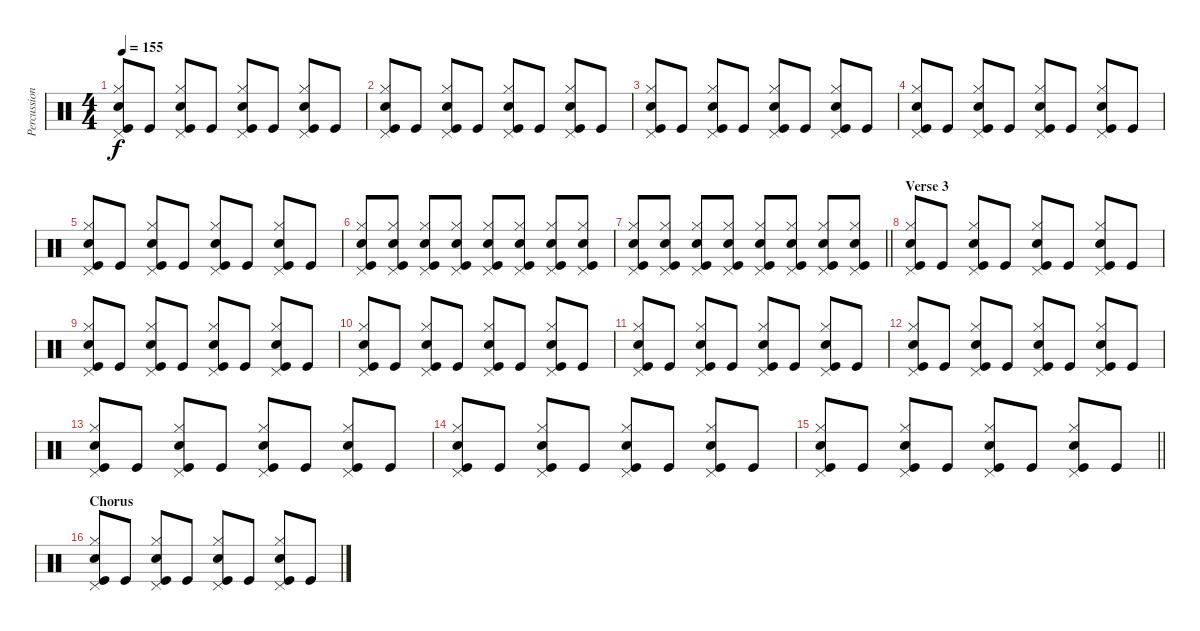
\track ("Percussions" "Percussion") {instrument percussion}
\staff {score}
\articulation defaults
\ts (4 4)
\tempo 155
\clef neutral
\ks c
("Snare (hit) 2" "Hi-Hat (closed)" "Pedal Hi-Hat (hit)" "Kick (hit)").8{dy f} "Kick (hit)".8 ("Snare (hit) 2" "Hi-Hat (closed)" "Pedal Hi-Hat (hit)" "Kick (hit)").8 "Kick (hit)".8 ("Snare (hit) 2" "Hi-Hat (closed)" "Pedal Hi-Hat (hit)" "Kick (hit)").8 "Kick (hit)".8 ("Snare (hit) 2" "Hi-Hat (closed)" "Pedal Hi-Hat (hit)" "Kick (hit)").8 "Kick (hit)".8 |
("Snare (hit) 2" "Hi-Hat (closed)" "Pedal Hi-Hat (hit)" "Kick (hit)").8 "Kick (hit)".8 ("Snare (hit) 2" "Hi-Hat (closed)" "Pedal Hi-Hat (hit)" "Kick (hit)").8 "Kick (hit)".8 ("Snare (hit) 2" "Hi-Hat (closed)" "Pedal Hi-Hat (hit)" "Kick (hit)").8 "Kick (hit)".8 ("Snare (hit) 2" "Hi-Hat (closed)" "Pedal Hi-Hat (hit)" "Kick (hit)").8 "Kick (hit)".8 |
("Snare (hit) 2" "Hi-Hat (closed)" "Pedal Hi-Hat (hit)" "Kick (hit)").8 "Kick (hit)".8 ("Snare (hit) 2" "Hi-Hat (closed)" "Pedal Hi-Hat (hit)" "Kick (hit)").8 "Kick (hit)".8 ("Snare (hit) 2" "Hi-Hat (closed)" "Pedal Hi-Hat (hit)" "Kick (hit)").8 "Kick (hit)".8 ("Snare (hit) 2" "Hi-Hat (closed)" "Pedal Hi-Hat (hit)" "Kick (hit)").8 "Kick (hit)".8 |
("Snare (hit) 2" "Hi-Hat (closed)" "Pedal Hi-Hat (hit)" "Kick (hit)").8 "Kick (hit)".8 ("Snare (hit) 2" "Hi-Hat (closed)" "Pedal Hi-Hat (hit)" "Kick (hit)").8 "Kick (hit)".8 ("Snare (hit) 2" "Hi-Hat (closed)" "Pedal Hi-Hat (hit)" "Kick (hit)").8 "Kick (hit)".8 ("Snare (hit) 2" "Hi-Hat (closed)" "Pedal Hi-Hat (hit)" "Kick (hit)").8 "Kick (hit)".8 |
("Snare (hit) 2" "Hi-Hat (closed)" "Pedal Hi-Hat (hit)" "Kick (hit)").8 "Kick (hit)".8 ("Snare (hit) 2" "Hi-Hat (closed)" "Pedal Hi-Hat (hit)" "Kick (hit)").8 "Kick (hit)".8 ("Snare (hit) 2" "Hi-Hat (closed)" "Pedal Hi-Hat (hit)" "Kick (hit)").8 "Kick (hit)".8 ("Snare (hit) 2" "Hi-Hat (closed)" "Pedal Hi-Hat (hit)" "Kick (hit)").8 "Kick (hit)".8 |
("Snare (hit) 2" "Hi-Hat (closed)" "Pedal Hi-Hat (hit)" "Kick (hit)").8 ("Snare (hit) 2" "Hi-Hat (closed)" "Pedal Hi-Hat (hit)" "Kick (hit)").8 ("Snare (hit) 2" "Hi-Hat (closed)" "Pedal Hi-Hat (hit)" "Kick (hit)").8 ("Snare (hit) 2" "Hi-Hat (closed)" "Pedal Hi-Hat (hit)" "Kick (hit)").8 ("Snare (hit) 2" "Hi-Hat (closed)" "Pedal Hi-Hat (hit)" "Kick (hit)").8 ("Snare (hit) 2" "Hi-Hat (closed)" "Pedal Hi-Hat (hit)" "Kick (hit)").8 ("Snare (hit) 2" "Hi-Hat (closed)" "Pedal Hi-Hat (hit)" "Kick (hit)").8 ("Snare (hit) 2" "Hi-Hat (closed)" "Pedal Hi-Hat (hit)" "Kick (hit)").8 |
\barLineRight lightlight
("Snare (hit) 2" "Hi-Hat (closed)" "Pedal Hi-Hat (hit)" "Kick (hit)").8 ("Snare (hit) 2" "Hi-Hat (closed)" "Pedal Hi-Hat (hit)" "Kick (hit)").8 ("Snare (hit) 2" "Hi-Hat (closed)" "Pedal Hi-Hat (hit)" "Kick (hit)").8 ("Snare (hit) 2" "Hi-Hat (closed)" "Pedal Hi-Hat (hit)" "Kick (hit)").8 ("Snare (hit) 2" "Hi-Hat (closed)" "Pedal Hi-Hat (hit)" "Kick (hit)").8 ("Snare (hit) 2" "Hi-Hat (closed)" "Pedal Hi-Hat (hit)" "Kick (hit)").8 ("Snare (hit) 2" "Hi-Hat (closed)" "Pedal Hi-Hat (hit)" "Kick (hit)").8 ("Snare (hit) 2" "Hi-Hat (closed)" "Pedal Hi-Hat (hit)" "Kick (hit)").8 |
\section ("" "Verse 3")
("Snare (hit) 2" "Hi-Hat (closed)" "Pedal Hi-Hat (hit)" "Kick (hit)").8 "Kick (hit)".8 ("Snare (hit) 2" "Hi-Hat (closed)" "Pedal Hi-Hat (hit)" "Kick (hit)").8 "Kick (hit)".8 ("Snare (hit) 2" "Hi-Hat (closed)" "Pedal Hi-Hat (hit)" "Kick (hit)").8 "Kick (hit)".8 ("Snare (hit) 2" "Hi-Hat (closed)" "Pedal Hi-Hat (hit)" "Kick (hit)").8 "Kick (hit)".8 |
("Snare (hit) 2" "Hi-Hat (closed)" "Pedal Hi-Hat (hit)" "Kick (hit)").8 "Kick (hit)".8 ("Snare (hit) 2" "Hi-Hat (closed)" "Pedal Hi-Hat (hit)" "Kick (hit)").8 "Kick (hit)".8 ("Snare (hit) 2" "Hi-Hat (closed)" "Pedal Hi-Hat (hit)" "Kick (hit)").8 "Kick (hit)".8 ("Snare (hit) 2" "Hi-Hat (closed)" "Pedal Hi-Hat (hit)" "Kick (hit)").8 "Kick (hit)".8 |
("Snare (hit) 2" "Hi-Hat (closed)" "Pedal Hi-Hat (hit)" "Kick (hit)").8 "Kick (hit)".8 ("Snare (hit) 2" "Hi-Hat (closed)" "Pedal Hi-Hat (hit)" "Kick (hit)").8 "Kick (hit)".8 ("Snare (hit) 2" "Hi-Hat (closed)" "Pedal Hi-Hat (hit)" "Kick (hit)").8 "Kick (hit)".8 ("Snare (hit) 2" "Hi-Hat (closed)" "Pedal Hi-Hat (hit)" "Kick (hit)").8 "Kick (hit)".8 |
("Snare (hit) 2" "Hi-Hat (closed)" "Pedal Hi-Hat (hit)" "Kick (hit)").8 "Kick (hit)".8 ("Snare (hit) 2" "Hi-Hat (closed)" "Pedal Hi-Hat (hit)" "Kick (hit)").8 "Kick (hit)".8 ("Snare (hit) 2" "Hi-Hat (closed)" "Pedal Hi-Hat (hit)" "Kick (hit)").8 "Kick (hit)".8 ("Snare (hit) 2" "Hi-Hat (closed)" "Pedal Hi-Hat (hit)" "Kick (hit)").8 "Kick (hit)".8 |
("Snare (hit) 2" "Hi-Hat (closed)" "Pedal Hi-Hat (hit)" "Kick (hit)").8 "Kick (hit)".8 ("Snare (hit) 2" "Hi-Hat (closed)" "Pedal Hi-Hat (hit)" "Kick (hit)").8 "Kick (hit)".8 ("Snare (hit) 2" "Hi-Hat (closed)" "Pedal Hi-Hat (hit)" "Kick (hit)").8 "Kick (hit)".8 ("Snare (hit) 2" "Hi-Hat (closed)" "Pedal Hi-Hat (hit)" "Kick (hit)").8 "Kick (hit)".8 |
("Snare (hit) 2" "Hi-Hat (closed)" "Pedal Hi-Hat (hit)" "Kick (hit)").8 "Kick (hit)".8 ("Snare (hit) 2" "Hi-Hat (closed)" "Pedal Hi-Hat (hit)" "Kick (hit)").8 "Kick (hit)".8 ("Snare (hit) 2" "Hi-Hat (closed)" "Pedal Hi-Hat (hit)" "Kick (hit)").8 "Kick (hit)".8 ("Snare (hit) 2" "Hi-Hat (closed)" "Pedal Hi-Hat (hit)" "Kick (hit)").8 "Kick (hit)".8 |
("Snare (hit) 2" "Hi-Hat (closed)" "Pedal Hi-Hat (hit)" "Kick (hit)").8 "Kick (hit)".8 ("Snare (hit) 2" "Hi-Hat (closed)" "Pedal Hi-Hat (hit)" "Kick (hit)").8 "Kick (hit)".8 ("Snare (hit) 2" "Hi-Hat (closed)" "Pedal Hi-Hat (hit)" "Kick (hit)").8 "Kick (hit)".8 ("Snare (hit) 2" "Hi-Hat (closed)" "Pedal Hi-Hat (hit)" "Kick (hit)").8 "Kick (hit)".8 |
\barLineRight lightlight
("Snare (hit) 2" "Hi-Hat (closed)" "Pedal Hi-Hat (hit)" "Kick (hit)").8 "Kick (hit)".8 ("Snare (hit) 2" "Hi-Hat (closed)" "Pedal Hi-Hat (hit)" "Kick (hit)").8 "Kick (hit)".8 ("Snare (hit) 2" "Hi-Hat (closed)" "Pedal Hi-Hat (hit)" "Kick (hit)").8 "Kick (hit)".8 ("Snare (hit) 2" "Hi-Hat (closed)" "Pedal Hi-Hat (hit)" "Kick (hit)").8 "Kick (hit)".8 |
\section ("" "Chorus")
("Snare (hit) 2" "Hi-Hat (closed)" "Pedal Hi-Hat (hit)" "Kick (hit)").8 "Kick (hit)".8 ("Snare (hit) 2" "Hi-Hat (closed)" "Pedal Hi-Hat (hit)" "Kick (hit)").8 "Kick (hit)".8 ("Snare (hit) 2" "Hi-Hat (closed)" "Pedal Hi-Hat (hit)" "Kick (hit)").8 "Kick (hit)".8 ("Snare (hit) 2" "Hi-Hat (closed)" "Pedal Hi-Hat (hit)" "Kick (hit)").8 "Kick (hit)".8
